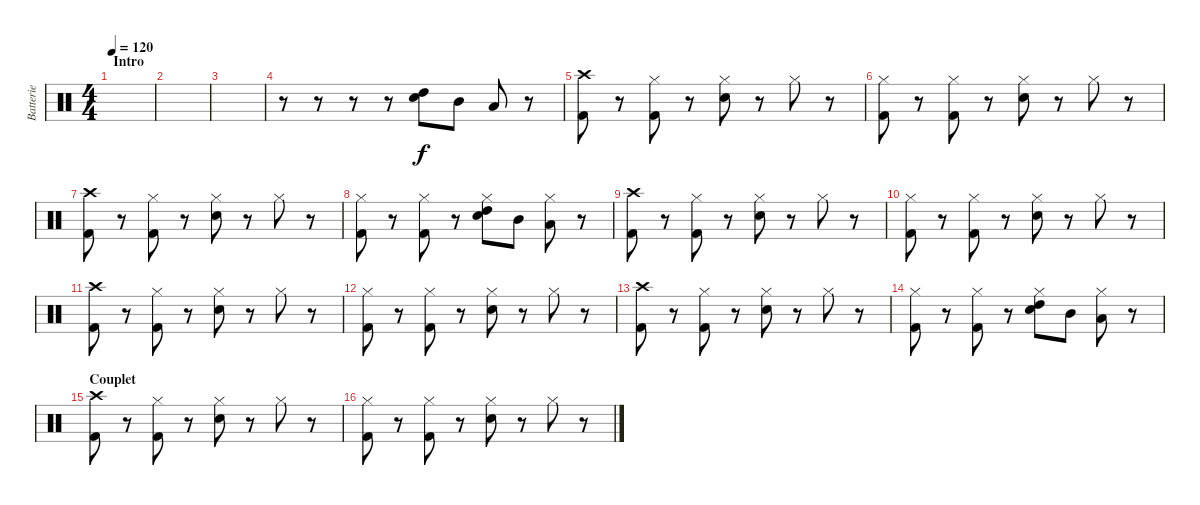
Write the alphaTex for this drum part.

\track ("Batterie" "Batterie") {instrument percussion}
\staff {score}
\articulation defaults
\ts (4 4)
\section ("" "Intro")
\tempo 120
\clef neutral
\ks c
|
|
|
r.8 r.8 r.8 r.8 ("Electric Snare (hit)" "High Tom (hit)").8 "Mid Tom (hit)".8 "Low Tom (hit)".8 r.8 |
("Crash high (hit)" "Kick (hit) 2").8 r.8 ("Hi-Hat (closed)" "Kick (hit) 2").8 r.8 ("Hi-Hat (closed)" "Electric Snare (hit)").8 r.8 "Hi-Hat (closed)".8 r.8 |
("Hi-Hat (closed)" "Kick (hit) 2").8 r.8 ("Hi-Hat (closed)" "Kick (hit) 2").8 r.8 ("Hi-Hat (closed)" "Electric Snare (hit)").8 r.8 "Hi-Hat (closed)".8 r.8 |
("Crash high (hit)" "Kick (hit) 2").8 r.8 ("Hi-Hat (closed)" "Kick (hit) 2").8 r.8 ("Hi-Hat (closed)" "Electric Snare (hit)").8 r.8 "Hi-Hat (closed)".8 r.8 |
("Hi-Hat (closed)" "Kick (hit) 2").8 r.8 ("Hi-Hat (closed)" "Kick (hit) 2").8 r.8 ("Hi-Hat (closed)" "Electric Snare (hit)" "High Tom (hit)").8 "Mid Tom (hit)".8 ("Hi-Hat (closed)" "Low Tom (hit)").8 r.8 |
("Crash high (hit)" "Kick (hit) 2").8 r.8 ("Hi-Hat (closed)" "Kick (hit) 2").8 r.8 ("Hi-Hat (closed)" "Electric Snare (hit)").8 r.8 "Hi-Hat (closed)".8 r.8 |
("Hi-Hat (closed)" "Kick (hit) 2").8 r.8 ("Hi-Hat (closed)" "Kick (hit) 2").8 r.8 ("Hi-Hat (closed)" "Electric Snare (hit)").8 r.8 "Hi-Hat (closed)".8 r.8 |
("Crash high (hit)" "Kick (hit) 2").8 r.8 ("Hi-Hat (closed)" "Kick (hit) 2").8 r.8 ("Hi-Hat (closed)" "Electric Snare (hit)").8 r.8 "Hi-Hat (closed)".8 r.8 |
("Hi-Hat (closed)" "Kick (hit) 2").8 r.8 ("Hi-Hat (closed)" "Kick (hit) 2").8 r.8 ("Hi-Hat (closed)" "Electric Snare (hit)").8 r.8 "Hi-Hat (closed)".8 r.8 |
("Crash high (hit)" "Kick (hit) 2").8 r.8 ("Hi-Hat (closed)" "Kick (hit) 2").8 r.8 ("Hi-Hat (closed)" "Electric Snare (hit)").8 r.8 "Hi-Hat (closed)".8 r.8 |
("Hi-Hat (closed)" "Kick (hit) 2").8 r.8 ("Hi-Hat (closed)" "Kick (hit) 2").8 r.8 ("Hi-Hat (closed)" "Electric Snare (hit)" "High Tom (hit)").8 "Mid Tom (hit)".8 ("Hi-Hat (closed)" "Low Tom (hit)").8 r.8 |
\section ("" "Couplet")
("Crash high (hit)" "Kick (hit) 2").8 r.8 ("Hi-Hat (closed)" "Kick (hit) 2").8 r.8 ("Hi-Hat (closed)" "Electric Snare (hit)").8 r.8 "Hi-Hat (closed)".8 r.8 |
("Hi-Hat (closed)" "Kick (hit) 2").8 r.8 ("Hi-Hat (closed)" "Kick (hit) 2").8 r.8 ("Hi-Hat (closed)" "Electric Snare (hit)").8 r.8 "Hi-Hat (closed)".8 r.8
